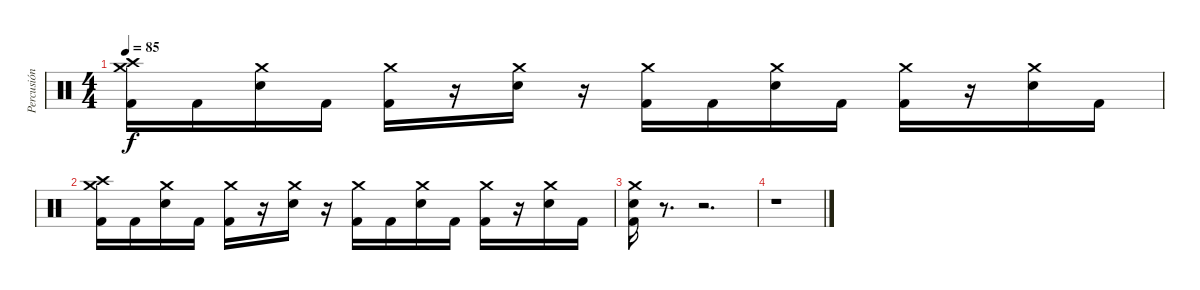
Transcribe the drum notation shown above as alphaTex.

\track ("Percusión" "Percusión") {instrument percussion}
\staff {score}
\articulation defaults
\ts (4 4)
\tempo 85
\clef neutral
\ks c
("Crash high (hit)" "Crash medium (hit)" "Kick (hit) 2").16{dy f} "Kick (hit) 2".16 ("Crash medium (hit)" "Electric Snare (hit)").16 "Kick (hit) 2".16 ("Crash medium (hit)" "Kick (hit) 2").16 r.16 ("Crash medium (hit)" "Electric Snare (hit)").16 r.16 ("Crash medium (hit)" "Kick (hit) 2").16 "Kick (hit) 2".16 ("Crash medium (hit)" "Electric Snare (hit)").16 "Kick (hit) 2".16 ("Crash medium (hit)" "Kick (hit) 2").16 r.16 ("Crash medium (hit)" "Electric Snare (hit)").16 "Kick (hit) 2".16 |
("Crash high (hit)" "Crash medium (hit)" "Kick (hit) 2").16 "Kick (hit) 2".16 ("Crash medium (hit)" "Electric Snare (hit)").16 "Kick (hit) 2".16 ("Crash medium (hit)" "Kick (hit) 2").16 r.16 ("Crash medium (hit)" "Electric Snare (hit)").16 r.16 ("Crash medium (hit)" "Kick (hit) 2").16 "Kick (hit) 2".16 ("Crash medium (hit)" "Electric Snare (hit)").16 "Kick (hit) 2".16 ("Crash medium (hit)" "Kick (hit) 2").16 r.16 ("Crash medium (hit)" "Electric Snare (hit)").16 "Kick (hit) 2".16 |
("Crash medium (hit)" "Kick (hit) 2" "Electric Snare (hit)").16 r.8{d} r.2{d} |
r.1
